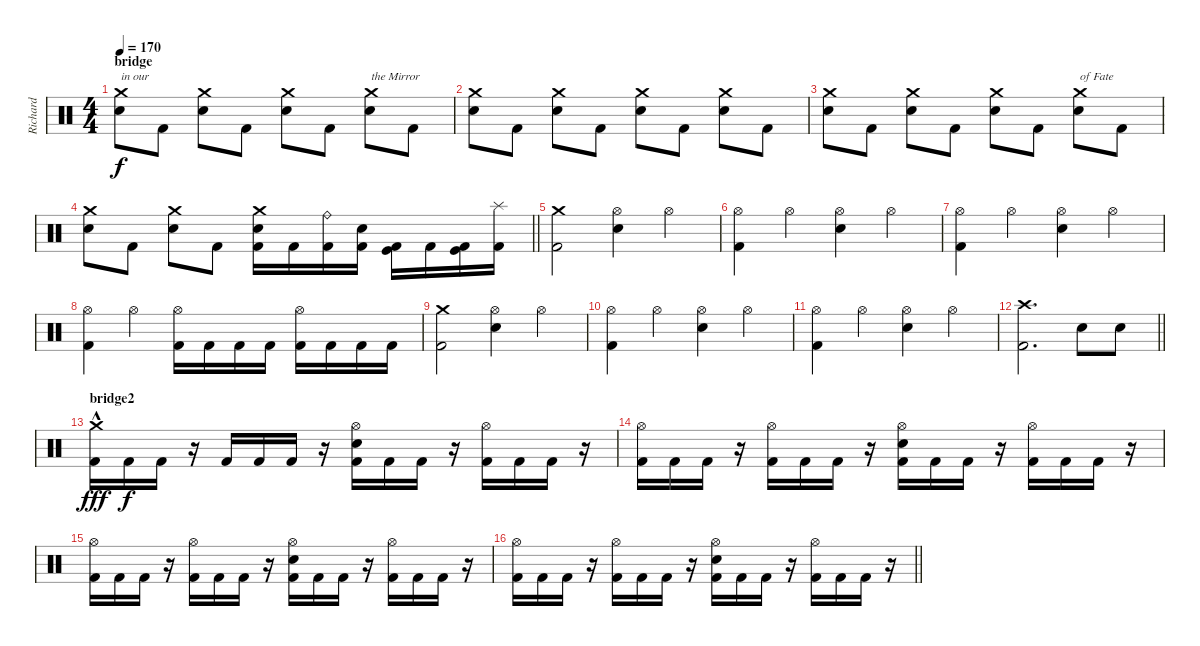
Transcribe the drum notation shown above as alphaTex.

\track ("Richard" "Richard") {instrument percussion}
\staff {score}
\articulation defaults
\ts (4 4)
\section ("" "bridge")
\tempo 170
\clef neutral
\ks c
("Crash medium (hit)" "Electric Snare (hit)").8{txt "in our" dy f} "Kick (hit) 2".8 ("Crash medium (hit)" "Electric Snare (hit)").8 "Kick (hit) 2".8 ("Crash medium (hit)" "Electric Snare (hit)").8 "Kick (hit) 2".8 ("Crash medium (hit)" "Electric Snare (hit)").8{txt "the Mirror"} "Kick (hit) 2".8 |
("Crash medium (hit)" "Electric Snare (hit)").8 "Kick (hit) 2".8 ("Crash medium (hit)" "Electric Snare (hit)").8 "Kick (hit) 2".8 ("Crash medium (hit)" "Electric Snare (hit)").8 "Kick (hit) 2".8 ("Crash medium (hit)" "Electric Snare (hit)").8 "Kick (hit) 2".8 |
("Crash medium (hit)" "Electric Snare (hit)").8 "Kick (hit) 2".8 ("Crash medium (hit)" "Electric Snare (hit)").8 "Kick (hit) 2".8 ("Crash medium (hit)" "Electric Snare (hit)").8 "Kick (hit) 2".8 ("Crash medium (hit)" "Electric Snare (hit)").8{txt "of Fate"} "Kick (hit) 2".8 |
\barLineRight lightlight
("Crash medium (hit)" "Electric Snare (hit)").8 "Kick (hit) 2".8 ("Crash medium (hit)" "Electric Snare (hit)").8 "Kick (hit) 2".8 ("Crash medium (hit)" "Electric Snare (hit)" "Kick (hit) 2").16 "Kick (hit) 2".16 ("Ride (bell)" "Kick (hit) 2").16 ("Electric Snare (hit)" "Kick (hit) 2").16 ("Kick (hit)" "Kick (hit) 2").16 "Kick (hit) 2".16 ("Kick (hit)" "Kick (hit) 2").16 ("Splash (hit)" "Kick (hit) 2").16 |
("Crash medium (hit)" "Kick (hit) 2").2 ("Hi-Hat (open)" "Electric Snare (hit)").4 "Hi-Hat (open)".4 |
("Hi-Hat (open)" "Kick (hit) 2").4 "Hi-Hat (open)".4 ("Hi-Hat (open)" "Electric Snare (hit)").4 "Hi-Hat (open)".4 |
("Hi-Hat (open)" "Kick (hit) 2").4 "Hi-Hat (open)".4 ("Hi-Hat (open)" "Electric Snare (hit)").4 "Hi-Hat (open)".4 |
("Hi-Hat (open)" "Kick (hit) 2").4 "Hi-Hat (open)".4 ("Hi-Hat (open)" "Kick (hit) 2").16 "Kick (hit) 2".16 "Kick (hit) 2".16 "Kick (hit) 2".16 ("Hi-Hat (open)" "Kick (hit) 2").16 "Kick (hit) 2".16 "Kick (hit) 2".16 "Kick (hit) 2".16 |
("Crash medium (hit)" "Kick (hit) 2").2 ("Hi-Hat (open)" "Electric Snare (hit)").4 "Hi-Hat (open)".4 |
("Hi-Hat (open)" "Kick (hit) 2").4 "Hi-Hat (open)".4 ("Hi-Hat (open)" "Electric Snare (hit)").4 "Hi-Hat (open)".4 |
("Hi-Hat (open)" "Kick (hit) 2").4 "Hi-Hat (open)".4 ("Hi-Hat (open)" "Electric Snare (hit)").4 "Hi-Hat (open)".4 |
\barLineRight lightlight
("Crash high (hit)" "Kick (hit) 2").2{d} "Electric Snare (hit)".8 "Electric Snare (hit)".8 |
\section ("" "bridge2")
("Crash medium (hit)"{hac} "Kick (hit) 2").16{dy fff} "Kick (hit) 2".16{dy f} "Kick (hit) 2".16 r.16 "Kick (hit) 2".16 "Kick (hit) 2".16 "Kick (hit) 2".16 r.16 ("Electric Snare (hit)" "Hi-Hat (open)" "Kick (hit) 2").16 "Kick (hit) 2".16 "Kick (hit) 2".16 r.16 ("Hi-Hat (open)" "Kick (hit) 2").16 "Kick (hit) 2".16 "Kick (hit) 2".16 r.16 |
("Hi-Hat (open)" "Kick (hit) 2").16 "Kick (hit) 2".16 "Kick (hit) 2".16 r.16 ("Hi-Hat (open)" "Kick (hit) 2").16 "Kick (hit) 2".16 "Kick (hit) 2".16 r.16 ("Electric Snare (hit)" "Hi-Hat (open)" "Kick (hit) 2").16 "Kick (hit) 2".16 "Kick (hit) 2".16 r.16 ("Hi-Hat (open)" "Kick (hit) 2").16 "Kick (hit) 2".16 "Kick (hit) 2".16 r.16 |
("Hi-Hat (open)" "Kick (hit) 2").16 "Kick (hit) 2".16 "Kick (hit) 2".16 r.16 ("Hi-Hat (open)" "Kick (hit) 2").16 "Kick (hit) 2".16 "Kick (hit) 2".16 r.16 ("Electric Snare (hit)" "Hi-Hat (open)" "Kick (hit) 2").16 "Kick (hit) 2".16 "Kick (hit) 2".16 r.16 ("Hi-Hat (open)" "Kick (hit) 2").16 "Kick (hit) 2".16 "Kick (hit) 2".16 r.16 |
\barLineRight lightlight
("Hi-Hat (open)" "Kick (hit) 2").16 "Kick (hit) 2".16 "Kick (hit) 2".16 r.16 ("Hi-Hat (open)" "Kick (hit) 2").16 "Kick (hit) 2".16 "Kick (hit) 2".16 r.16 ("Electric Snare (hit)" "Hi-Hat (open)" "Kick (hit) 2").16 "Kick (hit) 2".16 "Kick (hit) 2".16 r.16 ("Hi-Hat (open)" "Kick (hit) 2").16 "Kick (hit) 2".16 "Kick (hit) 2".16 r.16
